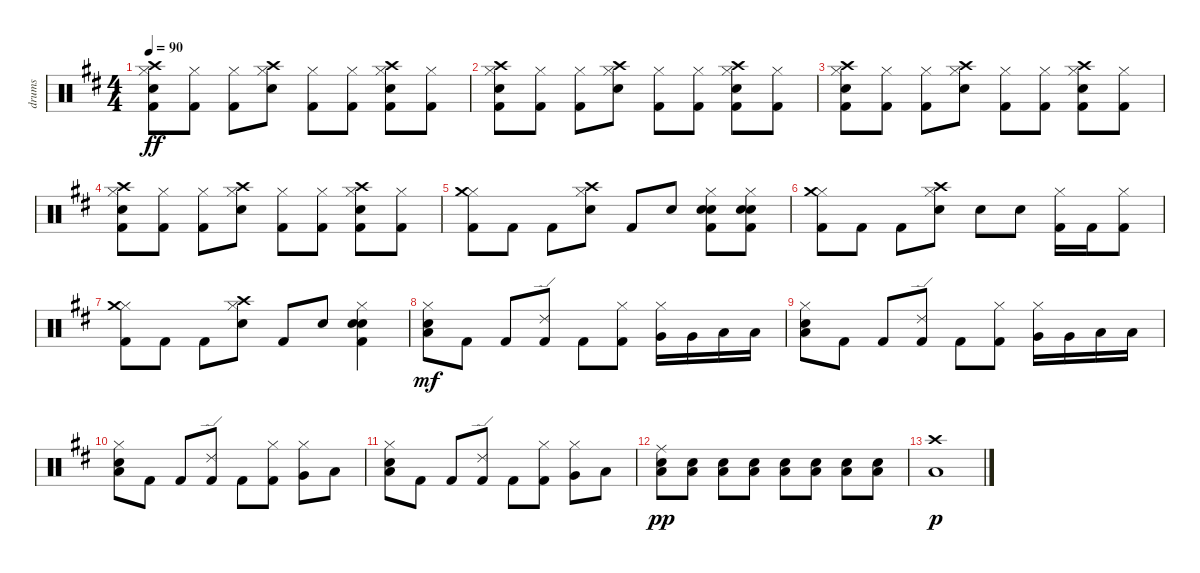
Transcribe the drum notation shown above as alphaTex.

\track ("drums" "drums") {instrument percussion}
\staff {score}
\articulation defaults
\ts (4 4)
\tempo 90
\clef neutral
\ks d
("Hi-Hat (closed)" "Crash high (hit)" "Electric Snare (hit)" "Kick (hit) 2").8{dy ff} ("Hi-Hat (closed)" "Kick (hit) 2").8 ("Hi-Hat (closed)" "Kick (hit) 2").8 ("Hi-Hat (closed)" "Crash high (hit)" "Electric Snare (hit)").8 ("Hi-Hat (closed)" "Kick (hit) 2").8 ("Hi-Hat (closed)" "Kick (hit) 2").8 ("Hi-Hat (closed)" "Crash high (hit)" "Electric Snare (hit)" "Kick (hit) 2").8 ("Hi-Hat (closed)" "Kick (hit) 2").8 |
("Hi-Hat (closed)" "Crash high (hit)" "Electric Snare (hit)" "Kick (hit) 2").8 ("Hi-Hat (closed)" "Kick (hit) 2").8 ("Hi-Hat (closed)" "Kick (hit) 2").8 ("Hi-Hat (closed)" "Crash high (hit)" "Electric Snare (hit)").8 ("Hi-Hat (closed)" "Kick (hit) 2").8 ("Hi-Hat (closed)" "Kick (hit) 2").8 ("Hi-Hat (closed)" "Crash high (hit)" "Electric Snare (hit)" "Kick (hit) 2").8 ("Hi-Hat (closed)" "Kick (hit) 2").8 |
("Hi-Hat (closed)" "Crash high (hit)" "Electric Snare (hit)" "Kick (hit) 2").8 ("Hi-Hat (closed)" "Kick (hit) 2").8 ("Hi-Hat (closed)" "Kick (hit) 2").8 ("Hi-Hat (closed)" "Crash high (hit)" "Electric Snare (hit)").8 ("Hi-Hat (closed)" "Kick (hit) 2").8 ("Hi-Hat (closed)" "Kick (hit) 2").8 ("Hi-Hat (closed)" "Crash high (hit)" "Electric Snare (hit)" "Kick (hit) 2").8 ("Hi-Hat (closed)" "Kick (hit) 2").8 |
("Hi-Hat (closed)" "Crash high (hit)" "Electric Snare (hit)" "Kick (hit) 2").8 ("Hi-Hat (closed)" "Kick (hit) 2").8 ("Hi-Hat (closed)" "Kick (hit) 2").8 ("Hi-Hat (closed)" "Crash high (hit)" "Electric Snare (hit)").8 ("Hi-Hat (closed)" "Kick (hit) 2").8 ("Hi-Hat (closed)" "Kick (hit) 2").8 ("Hi-Hat (closed)" "Crash high (hit)" "Electric Snare (hit)" "Kick (hit) 2").8 ("Hi-Hat (closed)" "Kick (hit) 2").8 |
("Hi-Hat (closed)" "Crash medium (hit)" "Kick (hit) 2").8 "Kick (hit) 2".8 "Kick (hit) 2".8 ("Hi-Hat (closed)" "Crash high (hit)" "Electric Snare (hit)").8 "Kick (hit) 2".8 "Electric Snare (hit)".8 ("Hi-Hat (closed)" "Snare (hit) 2" "Electric Snare (hit)" "Kick (hit) 2").8 ("Hi-Hat (closed)" "Snare (hit) 2" "Electric Snare (hit)" "Kick (hit) 2").8 |
("Hi-Hat (closed)" "Crash medium (hit)" "Kick (hit) 2").8 "Kick (hit) 2".8 "Kick (hit) 2".8 ("Hi-Hat (closed)" "Crash high (hit)" "Electric Snare (hit)").8 "Electric Snare (hit)".8 "Electric Snare (hit)".8 ("Hi-Hat (closed)" "Kick (hit) 2").16 "Kick (hit) 2".16 ("Hi-Hat (closed)" "Kick (hit) 2").8 |
("Hi-Hat (closed)" "Crash medium (hit)" "Kick (hit) 2").8 "Kick (hit) 2".8 "Kick (hit) 2".8 ("Hi-Hat (closed)" "Crash high (hit)" "Electric Snare (hit)").8 "Kick (hit) 2".8 "Electric Snare (hit)".8 ("Hi-Hat (closed)" "Snare (hit) 2" "Electric Snare (hit)" "Kick (hit) 2").4 |
("Hi-Hat (closed)" "Electric Snare (hit)" "Low Floor Tom (hit)").8{dy mf} "Kick (hit) 2".8 "Kick (hit) 2".8 ("Ride (edge) 2" "Kick (hit) 2").8 "Kick (hit) 2".8 ("Hi-Hat (closed)" "Kick (hit) 2").8 ("Hi-Hat (closed)" "Very Low Tom (hit)").16 "Very Low Tom (hit)".16 "Low Floor Tom (hit)".16 "Low Floor Tom (hit)".16 |
("Hi-Hat (closed)" "Electric Snare (hit)" "Low Floor Tom (hit)").8 "Kick (hit) 2".8 "Kick (hit) 2".8 ("Ride (edge) 2" "Kick (hit) 2").8 "Kick (hit) 2".8 ("Hi-Hat (closed)" "Kick (hit) 2").8 ("Hi-Hat (closed)" "Very Low Tom (hit)").16 "Very Low Tom (hit)".16 "Low Floor Tom (hit)".16 "Low Floor Tom (hit)".16 |
("Hi-Hat (closed)" "Electric Snare (hit)" "Low Floor Tom (hit)").8 "Kick (hit) 2".8 "Kick (hit) 2".8 ("Ride (edge) 2" "Kick (hit) 2").8 "Kick (hit) 2".8 ("Hi-Hat (closed)" "Kick (hit) 2").8 ("Hi-Hat (closed)" "Very Low Tom (hit)").8 "Low Floor Tom (hit)".8 |
("Hi-Hat (closed)" "Electric Snare (hit)" "Low Floor Tom (hit)").8 "Kick (hit) 2".8 "Kick (hit) 2".8 ("Ride (edge) 2" "Kick (hit) 2").8 "Kick (hit) 2".8 ("Hi-Hat (closed)" "Kick (hit) 2").8 ("Hi-Hat (closed)" "Very Low Tom (hit)").8 "Low Floor Tom (hit)".8 |
("Ride (middle)" "Electric Snare (hit)" "Low Floor Tom (hit)").8{dy pp} ("Electric Snare (hit)" "Low Floor Tom (hit)").8 ("Electric Snare (hit)" "Low Floor Tom (hit)").8 ("Electric Snare (hit)" "Low Floor Tom (hit)").8 ("Electric Snare (hit)" "Low Floor Tom (hit)").8 ("Electric Snare (hit)" "Low Floor Tom (hit)").8 ("Electric Snare (hit)" "Low Floor Tom (hit)").8 ("Electric Snare (hit)" "Low Floor Tom (hit)").8 |
("Crash high (hit)" "Low Floor Tom (hit)").1{dy p}
